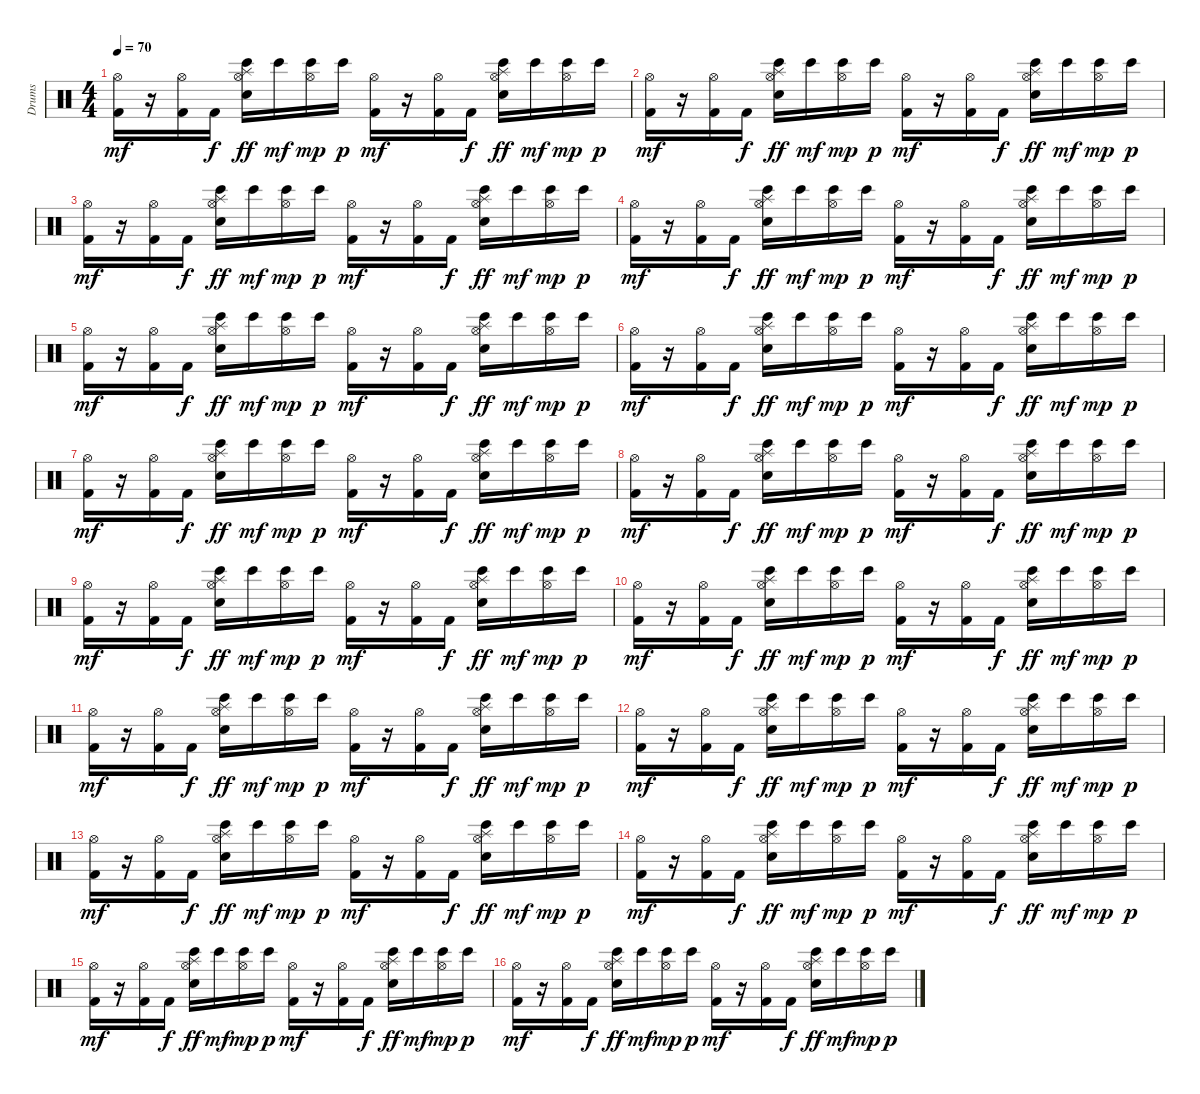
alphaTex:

\track ("Drums" "Drums") {instrument percussion}
\staff {score}
\articulation defaults
\ts (4 4)
\tempo 70
\clef neutral
\ks c
("Hi-Hat (open)" "Kick (hit) 2").16{dy mf} r.16 ("Hi-Hat (open)" "Kick (hit) 2").16 "Kick (hit) 2".16{dy f} ("Hi-Hat (open)" "Splash (hit)" "Snare (hit) 2" "Bongo High (hit)").16{dy ff} "Bongo High (hit)".16{dy mf} ("Hi-Hat (open)" "Bongo High (hit)").16{dy mp} "Bongo High (hit)".16{dy p} ("Hi-Hat (open)" "Kick (hit) 2").16{dy mf} r.16 ("Hi-Hat (open)" "Kick (hit) 2").16 "Kick (hit) 2".16{dy f} ("Hi-Hat (open)" "Splash (hit)" "Snare (hit) 2" "Bongo High (hit)").16{dy ff} "Bongo High (hit)".16{dy mf} ("Hi-Hat (open)" "Bongo High (hit)").16{dy mp} "Bongo High (hit)".16{dy p} |
("Hi-Hat (open)" "Kick (hit) 2").16{dy mf} r.16 ("Hi-Hat (open)" "Kick (hit) 2").16 "Kick (hit) 2".16{dy f} ("Hi-Hat (open)" "Splash (hit)" "Snare (hit) 2" "Bongo High (hit)").16{dy ff} "Bongo High (hit)".16{dy mf} ("Hi-Hat (open)" "Bongo High (hit)").16{dy mp} "Bongo High (hit)".16{dy p} ("Hi-Hat (open)" "Kick (hit) 2").16{dy mf} r.16 ("Hi-Hat (open)" "Kick (hit) 2").16 "Kick (hit) 2".16{dy f} ("Hi-Hat (open)" "Splash (hit)" "Snare (hit) 2" "Bongo High (hit)").16{dy ff} "Bongo High (hit)".16{dy mf} ("Hi-Hat (open)" "Bongo High (hit)").16{dy mp} "Bongo High (hit)".16{dy p} |
("Hi-Hat (open)" "Kick (hit) 2").16{dy mf} r.16 ("Hi-Hat (open)" "Kick (hit) 2").16 "Kick (hit) 2".16{dy f} ("Hi-Hat (open)" "Splash (hit)" "Snare (hit) 2" "Bongo High (hit)").16{dy ff} "Bongo High (hit)".16{dy mf} ("Hi-Hat (open)" "Bongo High (hit)").16{dy mp} "Bongo High (hit)".16{dy p} ("Hi-Hat (open)" "Kick (hit) 2").16{dy mf} r.16 ("Hi-Hat (open)" "Kick (hit) 2").16 "Kick (hit) 2".16{dy f} ("Hi-Hat (open)" "Splash (hit)" "Snare (hit) 2" "Bongo High (hit)").16{dy ff} "Bongo High (hit)".16{dy mf} ("Hi-Hat (open)" "Bongo High (hit)").16{dy mp} "Bongo High (hit)".16{dy p} |
("Hi-Hat (open)" "Kick (hit) 2").16{dy mf} r.16 ("Hi-Hat (open)" "Kick (hit) 2").16 "Kick (hit) 2".16{dy f} ("Hi-Hat (open)" "Splash (hit)" "Snare (hit) 2" "Bongo High (hit)").16{dy ff} "Bongo High (hit)".16{dy mf} ("Hi-Hat (open)" "Bongo High (hit)").16{dy mp} "Bongo High (hit)".16{dy p} ("Hi-Hat (open)" "Kick (hit) 2").16{dy mf} r.16 ("Hi-Hat (open)" "Kick (hit) 2").16 "Kick (hit) 2".16{dy f} ("Hi-Hat (open)" "Splash (hit)" "Snare (hit) 2" "Bongo High (hit)").16{dy ff} "Bongo High (hit)".16{dy mf} ("Hi-Hat (open)" "Bongo High (hit)").16{dy mp} "Bongo High (hit)".16{dy p} |
("Hi-Hat (open)" "Kick (hit) 2").16{dy mf} r.16 ("Hi-Hat (open)" "Kick (hit) 2").16 "Kick (hit) 2".16{dy f} ("Hi-Hat (open)" "Splash (hit)" "Snare (hit) 2" "Bongo High (hit)").16{dy ff} "Bongo High (hit)".16{dy mf} ("Hi-Hat (open)" "Bongo High (hit)").16{dy mp} "Bongo High (hit)".16{dy p} ("Hi-Hat (open)" "Kick (hit) 2").16{dy mf} r.16 ("Hi-Hat (open)" "Kick (hit) 2").16 "Kick (hit) 2".16{dy f} ("Hi-Hat (open)" "Splash (hit)" "Snare (hit) 2" "Bongo High (hit)").16{dy ff} "Bongo High (hit)".16{dy mf} ("Hi-Hat (open)" "Bongo High (hit)").16{dy mp} "Bongo High (hit)".16{dy p} |
("Hi-Hat (open)" "Kick (hit) 2").16{dy mf} r.16 ("Hi-Hat (open)" "Kick (hit) 2").16 "Kick (hit) 2".16{dy f} ("Hi-Hat (open)" "Splash (hit)" "Snare (hit) 2" "Bongo High (hit)").16{dy ff} "Bongo High (hit)".16{dy mf} ("Hi-Hat (open)" "Bongo High (hit)").16{dy mp} "Bongo High (hit)".16{dy p} ("Hi-Hat (open)" "Kick (hit) 2").16{dy mf} r.16 ("Hi-Hat (open)" "Kick (hit) 2").16 "Kick (hit) 2".16{dy f} ("Hi-Hat (open)" "Splash (hit)" "Snare (hit) 2" "Bongo High (hit)").16{dy ff} "Bongo High (hit)".16{dy mf} ("Hi-Hat (open)" "Bongo High (hit)").16{dy mp} "Bongo High (hit)".16{dy p} |
("Hi-Hat (open)" "Kick (hit) 2").16{dy mf} r.16 ("Hi-Hat (open)" "Kick (hit) 2").16 "Kick (hit) 2".16{dy f} ("Hi-Hat (open)" "Splash (hit)" "Snare (hit) 2" "Bongo High (hit)").16{dy ff} "Bongo High (hit)".16{dy mf} ("Hi-Hat (open)" "Bongo High (hit)").16{dy mp} "Bongo High (hit)".16{dy p} ("Hi-Hat (open)" "Kick (hit) 2").16{dy mf} r.16 ("Hi-Hat (open)" "Kick (hit) 2").16 "Kick (hit) 2".16{dy f} ("Hi-Hat (open)" "Splash (hit)" "Snare (hit) 2" "Bongo High (hit)").16{dy ff} "Bongo High (hit)".16{dy mf} ("Hi-Hat (open)" "Bongo High (hit)").16{dy mp} "Bongo High (hit)".16{dy p} |
("Hi-Hat (open)" "Kick (hit) 2").16{dy mf} r.16 ("Hi-Hat (open)" "Kick (hit) 2").16 "Kick (hit) 2".16{dy f} ("Hi-Hat (open)" "Splash (hit)" "Snare (hit) 2" "Bongo High (hit)").16{dy ff} "Bongo High (hit)".16{dy mf} ("Hi-Hat (open)" "Bongo High (hit)").16{dy mp} "Bongo High (hit)".16{dy p} ("Hi-Hat (open)" "Kick (hit) 2").16{dy mf} r.16 ("Hi-Hat (open)" "Kick (hit) 2").16 "Kick (hit) 2".16{dy f} ("Hi-Hat (open)" "Splash (hit)" "Snare (hit) 2" "Bongo High (hit)").16{dy ff} "Bongo High (hit)".16{dy mf} ("Hi-Hat (open)" "Bongo High (hit)").16{dy mp} "Bongo High (hit)".16{dy p} |
("Hi-Hat (open)" "Kick (hit) 2").16{dy mf} r.16 ("Hi-Hat (open)" "Kick (hit) 2").16 "Kick (hit) 2".16{dy f} ("Hi-Hat (open)" "Splash (hit)" "Snare (hit) 2" "Bongo High (hit)").16{dy ff} "Bongo High (hit)".16{dy mf} ("Hi-Hat (open)" "Bongo High (hit)").16{dy mp} "Bongo High (hit)".16{dy p} ("Hi-Hat (open)" "Kick (hit) 2").16{dy mf} r.16 ("Hi-Hat (open)" "Kick (hit) 2").16 "Kick (hit) 2".16{dy f} ("Hi-Hat (open)" "Splash (hit)" "Snare (hit) 2" "Bongo High (hit)").16{dy ff} "Bongo High (hit)".16{dy mf} ("Hi-Hat (open)" "Bongo High (hit)").16{dy mp} "Bongo High (hit)".16{dy p} |
("Hi-Hat (open)" "Kick (hit) 2").16{dy mf} r.16 ("Hi-Hat (open)" "Kick (hit) 2").16 "Kick (hit) 2".16{dy f} ("Hi-Hat (open)" "Splash (hit)" "Snare (hit) 2" "Bongo High (hit)").16{dy ff} "Bongo High (hit)".16{dy mf} ("Hi-Hat (open)" "Bongo High (hit)").16{dy mp} "Bongo High (hit)".16{dy p} ("Hi-Hat (open)" "Kick (hit) 2").16{dy mf} r.16 ("Hi-Hat (open)" "Kick (hit) 2").16 "Kick (hit) 2".16{dy f} ("Hi-Hat (open)" "Splash (hit)" "Snare (hit) 2" "Bongo High (hit)").16{dy ff} "Bongo High (hit)".16{dy mf} ("Hi-Hat (open)" "Bongo High (hit)").16{dy mp} "Bongo High (hit)".16{dy p} |
("Hi-Hat (open)" "Kick (hit) 2").16{dy mf} r.16 ("Hi-Hat (open)" "Kick (hit) 2").16 "Kick (hit) 2".16{dy f} ("Hi-Hat (open)" "Splash (hit)" "Snare (hit) 2" "Bongo High (hit)").16{dy ff} "Bongo High (hit)".16{dy mf} ("Hi-Hat (open)" "Bongo High (hit)").16{dy mp} "Bongo High (hit)".16{dy p} ("Hi-Hat (open)" "Kick (hit) 2").16{dy mf} r.16 ("Hi-Hat (open)" "Kick (hit) 2").16 "Kick (hit) 2".16{dy f} ("Hi-Hat (open)" "Splash (hit)" "Snare (hit) 2" "Bongo High (hit)").16{dy ff} "Bongo High (hit)".16{dy mf} ("Hi-Hat (open)" "Bongo High (hit)").16{dy mp} "Bongo High (hit)".16{dy p} |
("Hi-Hat (open)" "Kick (hit) 2").16{dy mf} r.16 ("Hi-Hat (open)" "Kick (hit) 2").16 "Kick (hit) 2".16{dy f} ("Hi-Hat (open)" "Splash (hit)" "Snare (hit) 2" "Bongo High (hit)").16{dy ff} "Bongo High (hit)".16{dy mf} ("Hi-Hat (open)" "Bongo High (hit)").16{dy mp} "Bongo High (hit)".16{dy p} ("Hi-Hat (open)" "Kick (hit) 2").16{dy mf} r.16 ("Hi-Hat (open)" "Kick (hit) 2").16 "Kick (hit) 2".16{dy f} ("Hi-Hat (open)" "Splash (hit)" "Snare (hit) 2" "Bongo High (hit)").16{dy ff} "Bongo High (hit)".16{dy mf} ("Hi-Hat (open)" "Bongo High (hit)").16{dy mp} "Bongo High (hit)".16{dy p} |
("Hi-Hat (open)" "Kick (hit) 2").16{dy mf} r.16 ("Hi-Hat (open)" "Kick (hit) 2").16 "Kick (hit) 2".16{dy f} ("Hi-Hat (open)" "Splash (hit)" "Snare (hit) 2" "Bongo High (hit)").16{dy ff} "Bongo High (hit)".16{dy mf} ("Hi-Hat (open)" "Bongo High (hit)").16{dy mp} "Bongo High (hit)".16{dy p} ("Hi-Hat (open)" "Kick (hit) 2").16{dy mf} r.16 ("Hi-Hat (open)" "Kick (hit) 2").16 "Kick (hit) 2".16{dy f} ("Hi-Hat (open)" "Splash (hit)" "Snare (hit) 2" "Bongo High (hit)").16{dy ff} "Bongo High (hit)".16{dy mf} ("Hi-Hat (open)" "Bongo High (hit)").16{dy mp} "Bongo High (hit)".16{dy p} |
("Hi-Hat (open)" "Kick (hit) 2").16{dy mf} r.16 ("Hi-Hat (open)" "Kick (hit) 2").16 "Kick (hit) 2".16{dy f} ("Hi-Hat (open)" "Splash (hit)" "Snare (hit) 2" "Bongo High (hit)").16{dy ff} "Bongo High (hit)".16{dy mf} ("Hi-Hat (open)" "Bongo High (hit)").16{dy mp} "Bongo High (hit)".16{dy p} ("Hi-Hat (open)" "Kick (hit) 2").16{dy mf} r.16 ("Hi-Hat (open)" "Kick (hit) 2").16 "Kick (hit) 2".16{dy f} ("Hi-Hat (open)" "Splash (hit)" "Snare (hit) 2" "Bongo High (hit)").16{dy ff} "Bongo High (hit)".16{dy mf} ("Hi-Hat (open)" "Bongo High (hit)").16{dy mp} "Bongo High (hit)".16{dy p} |
("Hi-Hat (open)" "Kick (hit) 2").16{dy mf} r.16 ("Hi-Hat (open)" "Kick (hit) 2").16 "Kick (hit) 2".16{dy f} ("Hi-Hat (open)" "Splash (hit)" "Snare (hit) 2" "Bongo High (hit)").16{dy ff} "Bongo High (hit)".16{dy mf} ("Hi-Hat (open)" "Bongo High (hit)").16{dy mp} "Bongo High (hit)".16{dy p} ("Hi-Hat (open)" "Kick (hit) 2").16{dy mf} r.16 ("Hi-Hat (open)" "Kick (hit) 2").16 "Kick (hit) 2".16{dy f} ("Hi-Hat (open)" "Splash (hit)" "Snare (hit) 2" "Bongo High (hit)").16{dy ff} "Bongo High (hit)".16{dy mf} ("Hi-Hat (open)" "Bongo High (hit)").16{dy mp} "Bongo High (hit)".16{dy p} |
("Hi-Hat (open)" "Kick (hit) 2").16{dy mf} r.16 ("Hi-Hat (open)" "Kick (hit) 2").16 "Kick (hit) 2".16{dy f} ("Hi-Hat (open)" "Splash (hit)" "Snare (hit) 2" "Bongo High (hit)").16{dy ff} "Bongo High (hit)".16{dy mf} ("Hi-Hat (open)" "Bongo High (hit)").16{dy mp} "Bongo High (hit)".16{dy p} ("Hi-Hat (open)" "Kick (hit) 2").16{dy mf} r.16 ("Hi-Hat (open)" "Kick (hit) 2").16 "Kick (hit) 2".16{dy f} ("Hi-Hat (open)" "Splash (hit)" "Snare (hit) 2" "Bongo High (hit)").16{dy ff} "Bongo High (hit)".16{dy mf} ("Hi-Hat (open)" "Bongo High (hit)").16{dy mp} "Bongo High (hit)".16{dy p}
